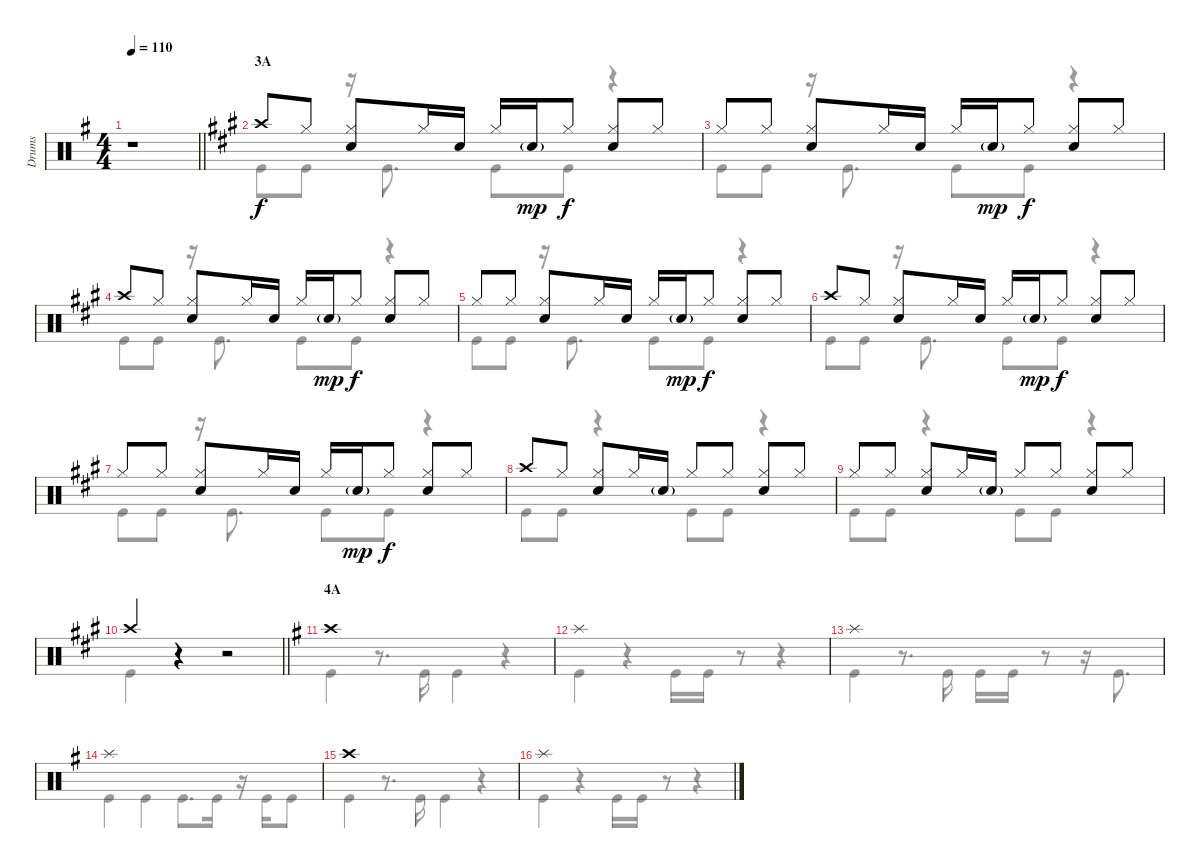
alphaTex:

\track ("Drums" "Drums") {instrument percussion}
\staff {score}
\articulation defaults
\voice
\ts (4 4)
\tempo 110
\clef neutral
\barLineRight lightlight
\ks g
r.1{dy f} |
\section ("" "3A")
\ks a "Crash high (hit)".8 "Hi-Hat (closed)".8
("Hi-Hat (closed)" "Snare (hit) 2").8 "Hi-Hat (closed)".16 "Snare (hit) 2".16 "Hi-Hat (closed)".16 "Snare (hit) 2"{g}.16{dy mp} "Hi-Hat (closed)".8{dy f} ("Hi-Hat (closed)" "Snare (hit) 2").8 "Hi-Hat (closed)".8 |
"Hi-Hat (closed)".8 "Hi-Hat (closed)".8 ("Hi-Hat (closed)" "Snare (hit) 2").8 "Hi-Hat (closed)".16 "Snare (hit) 2".16 "Hi-Hat (closed)".16 "Snare (hit) 2"{g}.16{dy mp} "Hi-Hat (closed)".8{dy f} ("Hi-Hat (closed)" "Snare (hit) 2").8 "Hi-Hat (closed)".8 |
"Crash high (hit)".8 "Hi-Hat (closed)".8 ("Hi-Hat (closed)" "Snare (hit) 2").8 "Hi-Hat (closed)".16 "Snare (hit) 2".16 "Hi-Hat (closed)".16 "Snare (hit) 2"{g}.16{dy mp} "Hi-Hat (closed)".8{dy f} ("Hi-Hat (closed)" "Snare (hit) 2").8 "Hi-Hat (closed)".8 |
"Hi-Hat (closed)".8 "Hi-Hat (closed)".8 ("Hi-Hat (closed)" "Snare (hit) 2").8 "Hi-Hat (closed)".16 "Snare (hit) 2".16 "Hi-Hat (closed)".16 "Snare (hit) 2"{g}.16{dy mp} "Hi-Hat (closed)".8{dy f} ("Hi-Hat (closed)" "Snare (hit) 2").8 "Hi-Hat (closed)".8 |
"Crash high (hit)".8 "Hi-Hat (closed)".8 ("Hi-Hat (closed)" "Snare (hit) 2").8 "Hi-Hat (closed)".16 "Snare (hit) 2".16 "Hi-Hat (closed)".16 "Snare (hit) 2"{g}.16{dy mp} "Hi-Hat (closed)".8{dy f} ("Hi-Hat (closed)" "Snare (hit) 2").8 "Hi-Hat (closed)".8 |
"Hi-Hat (closed)".8 "Hi-Hat (closed)".8 ("Hi-Hat (closed)" "Snare (hit) 2").8 "Hi-Hat (closed)".16 "Snare (hit) 2".16 "Hi-Hat (closed)".16 "Snare (hit) 2"{g}.16{dy mp} "Hi-Hat (closed)".8{dy f} ("Hi-Hat (closed)" "Snare (hit) 2").8 "Hi-Hat (closed)".8 |
"Crash high (hit)".8 "Hi-Hat (closed)".8 ("Hi-Hat (closed)" "Snare (hit) 2").8 "Hi-Hat (closed)".16 "Snare (hit) 2"{g}.16 "Hi-Hat (closed)".8 "Hi-Hat (closed)".8 ("Hi-Hat (closed)" "Snare (hit) 2").8 "Hi-Hat (closed)".8 |
"Hi-Hat (closed)".8 "Hi-Hat (closed)".8 ("Hi-Hat (closed)" "Snare (hit) 2").8 "Hi-Hat (closed)".16 "Snare (hit) 2"{g}.16 "Hi-Hat (closed)".8 "Hi-Hat (closed)".8 ("Hi-Hat (closed)" "Snare (hit) 2").8 "Hi-Hat (closed)".8 |
\barLineRight lightlight "Crash high (hit)".4
r.4 r.2 |
\section ("" "4A")
\ks g "Crash high (hit)".1
|
"Splash (hit)".1 |
"Splash (hit)".1 |
"Splash (hit)".1 |
"Crash high (hit)".1 |
"Splash (hit)".1
\voice
\clef neutral
\ottava regular
\simile none
\barLineRight lightlight
\ks g
r.1{dy f} |
\ks a "Kick (hit)".8 "Kick (hit)".8
r.16 "Kick (hit)".8{d} "Kick (hit)".8 "Kick (hit)".8 r.4 |
"Kick (hit)".8 "Kick (hit)".8 r.16 "Kick (hit)".8{d} "Kick (hit)".8 "Kick (hit)".8 r.4 |
"Kick (hit)".8 "Kick (hit)".8 r.16 "Kick (hit)".8{d} "Kick (hit)".8 "Kick (hit)".8 r.4 |
"Kick (hit)".8 "Kick (hit)".8 r.16 "Kick (hit)".8{d} "Kick (hit)".8 "Kick (hit)".8 r.4 |
"Kick (hit)".8 "Kick (hit)".8 r.16 "Kick (hit)".8{d} "Kick (hit)".8 "Kick (hit)".8 r.4 |
"Kick (hit)".8 "Kick (hit)".8 r.16 "Kick (hit)".8{d} "Kick (hit)".8 "Kick (hit)".8 r.4 |
"Kick (hit)".8 "Kick (hit)".8 r.4 "Kick (hit)".8 "Kick (hit)".8 r.4 |
"Kick (hit)".8 "Kick (hit)".8 r.4 "Kick (hit)".8 "Kick (hit)".8 r.4 |
\barLineRight lightlight "Kick (hit)".4
r.4 r.2 |
\ks g "Kick (hit)".4
r.8{d} "Kick (hit)".16 "Kick (hit)".4 r.4 |
"Kick (hit)".4 r.4 "Kick (hit)".16 "Kick (hit)".16 r.8 r.4 |
"Kick (hit)".4 r.8{d} "Kick (hit)".16 "Kick (hit)".16 "Kick (hit)".16 r.8 r.16 "Kick (hit)".8{d} |
"Kick (hit)".4 "Kick (hit)".4 "Kick (hit)".8{d} "Kick (hit)".16 r.16 "Kick (hit)".16 "Kick (hit)".8 |
"Kick (hit)".4 r.8{d} "Kick (hit)".16 "Kick (hit)".4 r.4 |
"Kick (hit)".4 r.4 "Kick (hit)".16 "Kick (hit)".16 r.8 r.4
